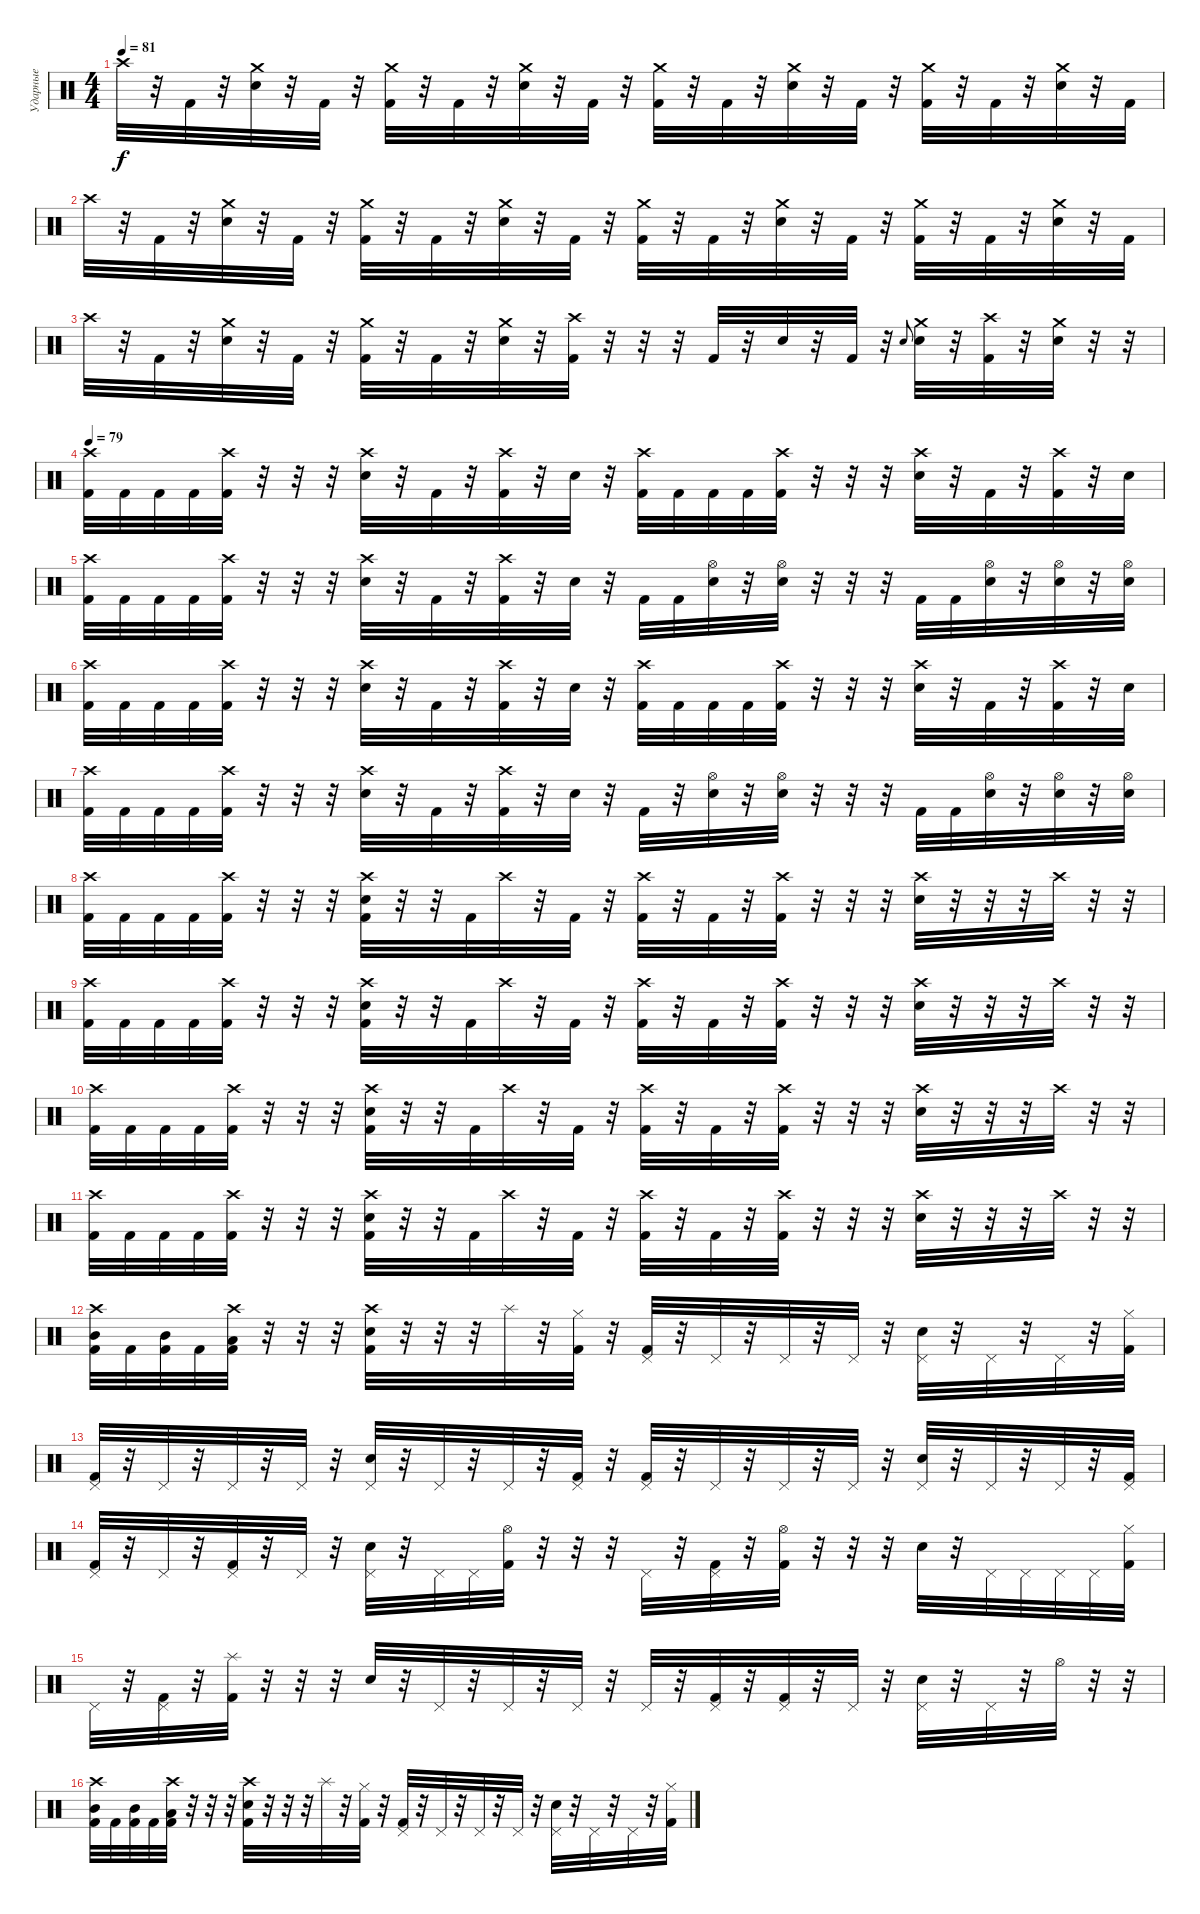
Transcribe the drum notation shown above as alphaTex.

\track ("Ударные" "Ударные") {instrument percussion}
\staff {score}
\articulation defaults
\ts (4 4)
\tempo 81
\clef neutral
\ks c "Crash high (hit)".32{dy f}
r.32 "Kick (hit) 2".32 r.32 ("Crash medium (hit)" "Electric Snare (hit)").32 r.32 "Kick (hit) 2".32 r.32 ("Crash medium (hit)" "Kick (hit) 2").32 r.32 "Kick (hit) 2".32 r.32 ("Crash medium (hit)" "Electric Snare (hit)").32 r.32 "Kick (hit) 2".32 r.32 ("Crash medium (hit)" "Kick (hit) 2").32 r.32 "Kick (hit) 2".32 r.32 ("Crash medium (hit)" "Electric Snare (hit)").32 r.32 "Kick (hit) 2".32 r.32 ("Crash medium (hit)" "Kick (hit) 2").32 r.32 "Kick (hit) 2".32 r.32 ("Crash medium (hit)" "Electric Snare (hit)").32 r.32 "Kick (hit) 2".32 |
"Crash high (hit)".32 r.32 "Kick (hit) 2".32 r.32 ("Crash medium (hit)" "Electric Snare (hit)").32 r.32 "Kick (hit) 2".32 r.32 ("Crash medium (hit)" "Kick (hit) 2").32 r.32 "Kick (hit) 2".32 r.32 ("Crash medium (hit)" "Electric Snare (hit)").32 r.32 "Kick (hit) 2".32 r.32 ("Crash medium (hit)" "Kick (hit) 2").32 r.32 "Kick (hit) 2".32 r.32 ("Crash medium (hit)" "Electric Snare (hit)").32 r.32 "Kick (hit) 2".32 r.32 ("Crash medium (hit)" "Kick (hit) 2").32 r.32 "Kick (hit) 2".32 r.32 ("Crash medium (hit)" "Electric Snare (hit)").32 r.32 "Kick (hit) 2".32 |
"Crash high (hit)".32 r.32 "Kick (hit) 2".32 r.32 ("Crash medium (hit)" "Electric Snare (hit)").32 r.32 "Kick (hit) 2".32 r.32 ("Crash medium (hit)" "Kick (hit) 2").32 r.32 "Kick (hit) 2".32 r.32 ("Crash medium (hit)" "Electric Snare (hit)").32 r.32 ("Crash high (hit)" "Kick (hit) 2").32 r.32 r.32 r.32 "Kick (hit) 2".32 r.32 "Electric Snare (hit)".32 r.32 "Kick (hit) 2".32 r.32 "Electric Snare (hit)".8{gr onbeat} ("Crash medium (hit)" "Electric Snare (hit)").32 r.32 ("Crash high (hit)" "Kick (hit) 2").32 r.32 ("Crash medium (hit)" "Electric Snare (hit)").32 r.32 r.32 |
\tempo 79
("Crash high (hit)" "Kick (hit) 2").32 "Kick (hit) 2".32 "Kick (hit) 2".32 "Kick (hit) 2".32 ("Crash high (hit)" "Kick (hit) 2").32 r.32 r.32 r.32 ("Crash high (hit)" "Electric Snare (hit)").32 r.32 "Kick (hit) 2".32 r.32 ("Crash high (hit)" "Kick (hit) 2").32 r.32 "Electric Snare (hit)".32 r.32 ("Crash high (hit)" "Kick (hit) 2").32 "Kick (hit) 2".32 "Kick (hit) 2".32 "Kick (hit) 2".32 ("Crash high (hit)" "Kick (hit) 2").32 r.32 r.32 r.32 ("Crash high (hit)" "Electric Snare (hit)").32 r.32 "Kick (hit) 2".32 r.32 ("Crash high (hit)" "Kick (hit) 2").32 r.32 "Electric Snare (hit)".32 |
("Crash high (hit)" "Kick (hit) 2").32 "Kick (hit) 2".32 "Kick (hit) 2".32 "Kick (hit) 2".32 ("Crash high (hit)" "Kick (hit) 2").32 r.32 r.32 r.32 ("Crash high (hit)" "Electric Snare (hit)").32 r.32 "Kick (hit) 2".32 r.32 ("Crash high (hit)" "Kick (hit) 2").32 r.32 "Electric Snare (hit)".32 r.32 "Kick (hit) 2".32 "Kick (hit) 2".32 ("Hi-Hat (open)" "Electric Snare (hit)").32 r.32 ("Hi-Hat (open)" "Electric Snare (hit)").32 r.32 r.32 r.32 "Kick (hit) 2".32 "Kick (hit) 2".32 ("Hi-Hat (open)" "Electric Snare (hit)").32 r.32 ("Hi-Hat (open)" "Electric Snare (hit)").32 r.32 ("Hi-Hat (open)" "Electric Snare (hit)").32 |
("Crash high (hit)" "Kick (hit) 2").32 "Kick (hit) 2".32 "Kick (hit) 2".32 "Kick (hit) 2".32 ("Crash high (hit)" "Kick (hit) 2").32 r.32 r.32 r.32 ("Crash high (hit)" "Electric Snare (hit)").32 r.32 "Kick (hit) 2".32 r.32 ("Crash high (hit)" "Kick (hit) 2").32 r.32 "Electric Snare (hit)".32 r.32 ("Crash high (hit)" "Kick (hit) 2").32 "Kick (hit) 2".32 "Kick (hit) 2".32 "Kick (hit) 2".32 ("Crash high (hit)" "Kick (hit) 2").32 r.32 r.32 r.32 ("Crash high (hit)" "Electric Snare (hit)").32 r.32 "Kick (hit) 2".32 r.32 ("Crash high (hit)" "Kick (hit) 2").32 r.32 "Electric Snare (hit)".32 |
("Crash high (hit)" "Kick (hit) 2").32 "Kick (hit) 2".32 "Kick (hit) 2".32 "Kick (hit) 2".32 ("Crash high (hit)" "Kick (hit) 2").32 r.32 r.32 r.32 ("Crash high (hit)" "Electric Snare (hit)").32 r.32 "Kick (hit) 2".32 r.32 ("Crash high (hit)" "Kick (hit) 2").32 r.32 "Electric Snare (hit)".32 r.32 "Kick (hit) 2".32 r.32 ("Hi-Hat (open)" "Electric Snare (hit)").32 r.32 ("Hi-Hat (open)" "Electric Snare (hit)").32 r.32 r.32 r.32 "Kick (hit) 2".32 "Kick (hit) 2".32 ("Hi-Hat (open)" "Electric Snare (hit)").32 r.32 ("Hi-Hat (open)" "Electric Snare (hit)").32 r.32 ("Hi-Hat (open)" "Electric Snare (hit)").32 |
("Crash high (hit)" "Kick (hit) 2").32 "Kick (hit) 2".32 "Kick (hit) 2".32 "Kick (hit) 2".32 ("Crash high (hit)" "Kick (hit) 2").32 r.32 r.32 r.32 ("Crash high (hit)" "Kick (hit) 2" "Electric Snare (hit)").32 r.32 r.32 "Kick (hit) 2".32 "Crash high (hit)".32 r.32 "Kick (hit) 2".32 r.32 ("Crash high (hit)" "Kick (hit) 2").32 r.32 "Kick (hit) 2".32 r.32 ("Crash high (hit)" "Kick (hit) 2").32 r.32 r.32 r.32 ("Crash high (hit)" "Electric Snare (hit)").32 r.32 r.32 r.32 "Crash high (hit)".32 r.32 r.32 |
("Crash high (hit)" "Kick (hit) 2").32 "Kick (hit) 2".32 "Kick (hit) 2".32 "Kick (hit) 2".32 ("Crash high (hit)" "Kick (hit) 2").32 r.32 r.32 r.32 ("Crash high (hit)" "Kick (hit) 2" "Electric Snare (hit)").32 r.32 r.32 "Kick (hit) 2".32 "Crash high (hit)".32 r.32 "Kick (hit) 2".32 r.32 ("Crash high (hit)" "Kick (hit) 2").32 r.32 "Kick (hit) 2".32 r.32 ("Crash high (hit)" "Kick (hit) 2").32 r.32 r.32 r.32 ("Crash high (hit)" "Electric Snare (hit)").32 r.32 r.32 r.32 "Crash high (hit)".32 r.32 r.32 |
("Crash high (hit)" "Kick (hit) 2").32 "Kick (hit) 2".32 "Kick (hit) 2".32 "Kick (hit) 2".32 ("Crash high (hit)" "Kick (hit) 2").32 r.32 r.32 r.32 ("Crash high (hit)" "Kick (hit) 2" "Electric Snare (hit)").32 r.32 r.32 "Kick (hit) 2".32 "Crash high (hit)".32 r.32 "Kick (hit) 2".32 r.32 ("Crash high (hit)" "Kick (hit) 2").32 r.32 "Kick (hit) 2".32 r.32 ("Crash high (hit)" "Kick (hit) 2").32 r.32 r.32 r.32 ("Crash high (hit)" "Electric Snare (hit)").32 r.32 r.32 r.32 "Crash high (hit)".32 r.32 r.32 |
("Crash high (hit)" "Kick (hit) 2").32 "Kick (hit) 2".32 "Kick (hit) 2".32 "Kick (hit) 2".32 ("Crash high (hit)" "Kick (hit) 2").32 r.32 r.32 r.32 ("Crash high (hit)" "Kick (hit) 2" "Electric Snare (hit)").32 r.32 r.32 "Kick (hit) 2".32 "Crash high (hit)".32 r.32 "Kick (hit) 2".32 r.32 ("Crash high (hit)" "Kick (hit) 2").32 r.32 "Kick (hit) 2".32 r.32 ("Crash high (hit)" "Kick (hit) 2").32 r.32 r.32 r.32 ("Crash high (hit)" "Electric Snare (hit)").32 r.32 r.32 r.32 "Crash high (hit)".32 r.32 r.32 |
("Crash high (hit)" "Mid Tom (hit)" "Kick (hit) 2").32 "Kick (hit) 2".32 ("Mid Tom (hit)" "Kick (hit) 2").32 "Kick (hit) 2".32 ("Crash high (hit)" "Low Tom (hit)" "Kick (hit) 2").32 r.32 r.32 r.32 ("Crash high (hit)" "Kick (hit) 2" "Electric Snare (hit)").32 r.32 r.32 r.32 "Splash (hit)".32 r.32 ("Hi-Hat (closed)" "Kick (hit) 2").32 r.32 ("Pedal Hi-Hat (hit)" "Kick (hit) 2").32 r.32 "Pedal Hi-Hat (hit)".32 r.32 "Pedal Hi-Hat (hit)".32 r.32 "Pedal Hi-Hat (hit)".32 r.32 ("Pedal Hi-Hat (hit)" "Electric Snare (hit)").32 r.32 "Pedal Hi-Hat (hit)".32 r.32 "Pedal Hi-Hat (hit)".32 r.32 ("Hi-Hat (closed)" "Kick (hit) 2").32 |
("Pedal Hi-Hat (hit)" "Kick (hit) 2").32 r.32 "Pedal Hi-Hat (hit)".32 r.32 "Pedal Hi-Hat (hit)".32 r.32 "Pedal Hi-Hat (hit)".32 r.32 ("Pedal Hi-Hat (hit)" "Electric Snare (hit)").32 r.32 "Pedal Hi-Hat (hit)".32 r.32 "Pedal Hi-Hat (hit)".32 r.32 ("Pedal Hi-Hat (hit)" "Kick (hit) 2").32 r.32 ("Pedal Hi-Hat (hit)" "Kick (hit) 2").32 r.32 "Pedal Hi-Hat (hit)".32 r.32 "Pedal Hi-Hat (hit)".32 r.32 "Pedal Hi-Hat (hit)".32 r.32 ("Pedal Hi-Hat (hit)" "Electric Snare (hit)").32 r.32 "Pedal Hi-Hat (hit)".32 r.32 "Pedal Hi-Hat (hit)".32 r.32 ("Pedal Hi-Hat (hit)" "Kick (hit) 2").32 |
("Pedal Hi-Hat (hit)" "Kick (hit) 2").32 r.32 "Pedal Hi-Hat (hit)".32 r.32 ("Pedal Hi-Hat (hit)" "Kick (hit) 2").32 r.32 "Pedal Hi-Hat (hit)".32 r.32 ("Pedal Hi-Hat (hit)" "Electric Snare (hit)").32 r.32 "Pedal Hi-Hat (hit)".32 "Pedal Hi-Hat (hit)".32 ("Hi-Hat (open)" "Kick (hit) 2").32 r.32 r.32 r.32 "Pedal Hi-Hat (hit)".32 r.32 ("Pedal Hi-Hat (hit)" "Kick (hit) 2").32 r.32 ("Hi-Hat (open)" "Kick (hit) 2").32 r.32 r.32 r.32 "Electric Snare (hit)".32 r.32 "Pedal Hi-Hat (hit)".32 "Pedal Hi-Hat (hit)".32 "Pedal Hi-Hat (hit)".32 "Pedal Hi-Hat (hit)".32 ("Hi-Hat (closed)" "Kick (hit) 2").32 |
"Pedal Hi-Hat (hit)".32 r.32 ("Pedal Hi-Hat (hit)" "Kick (hit) 2").32 r.32 ("Splash (hit)" "Kick (hit) 2").32 r.32 r.32 r.32 "Electric Snare (hit)".32 r.32 "Pedal Hi-Hat (hit)".32 r.32 "Pedal Hi-Hat (hit)".32 r.32 "Pedal Hi-Hat (hit)".32 r.32 "Pedal Hi-Hat (hit)".32 r.32 ("Pedal Hi-Hat (hit)" "Kick (hit) 2").32 r.32 ("Pedal Hi-Hat (hit)" "Kick (hit) 2").32 r.32 "Pedal Hi-Hat (hit)".32 r.32 ("Pedal Hi-Hat (hit)" "Electric Snare (hit)").32 r.32 "Pedal Hi-Hat (hit)".32 r.32 "Hi-Hat (open)".32 r.32 r.32 |
("Crash high (hit)" "Mid Tom (hit)" "Kick (hit) 2").32 "Kick (hit) 2".32 ("Mid Tom (hit)" "Kick (hit) 2").32 "Kick (hit) 2".32 ("Crash high (hit)" "Low Tom (hit)" "Kick (hit) 2").32 r.32 r.32 r.32 ("Crash high (hit)" "Kick (hit) 2" "Electric Snare (hit)").32 r.32 r.32 r.32 "Splash (hit)".32 r.32 ("Hi-Hat (closed)" "Kick (hit) 2").32 r.32 ("Pedal Hi-Hat (hit)" "Kick (hit) 2").32 r.32 "Pedal Hi-Hat (hit)".32 r.32 "Pedal Hi-Hat (hit)".32 r.32 "Pedal Hi-Hat (hit)".32 r.32 ("Pedal Hi-Hat (hit)" "Electric Snare (hit)").32 r.32 "Pedal Hi-Hat (hit)".32 r.32 "Pedal Hi-Hat (hit)".32 r.32 ("Hi-Hat (closed)" "Kick (hit) 2").32
